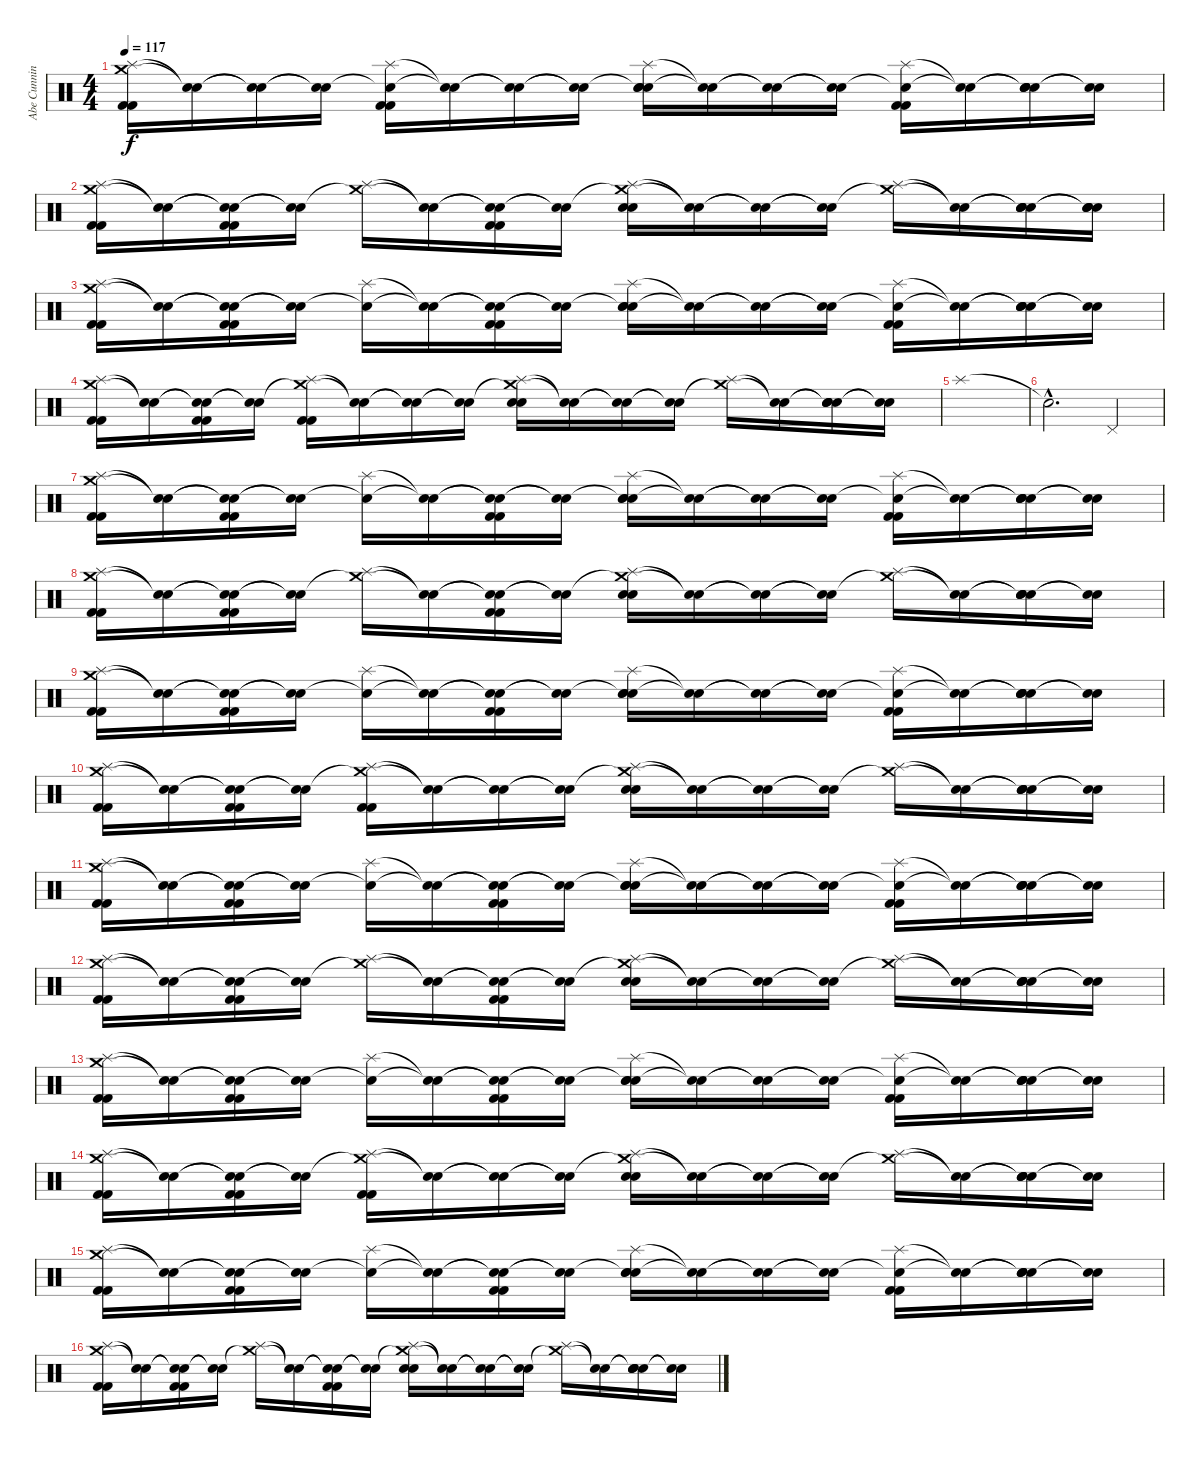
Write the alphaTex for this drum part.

\track ("Abe Cunningham" "Abe Cunnin") {instrument percussion}
\staff {score}
\articulation defaults
\ts (4 4)
\tempo 117
\clef neutral
\ks c
("Splash (hit)" "Crash medium (hit)" "Kick (hit) 2" "Kick (hit) 2").16{dy f} ("Snare (hit)"{t} "Snare (hit)"{t}).16 ("Snare (hit)"{t} "Snare (hit)"{t}).16 ("Snare (hit)"{t} "Snare (hit)"{t}).16 ("Splash (hit)" "Snare (hit)"{t} "Kick (hit) 2" "Kick (hit) 2").16 ("Snare (hit)"{t} "Snare (hit)"{t}).16 ("Snare (hit)"{t} "Snare (hit)"{t}).16 ("Snare (hit)"{t} "Snare (hit)"{t}).16 ("Splash (hit)" "Snare (hit)"{t} "Electric Snare (hit)" "Electric Snare (hit)").16 ("Snare (hit)"{t} "Snare (hit)"{t}).16 ("Snare (hit)"{t} "Snare (hit)"{t}).16 ("Snare (hit)"{t} "Snare (hit)"{t}).16 ("Splash (hit)" "Snare (hit)"{t} "Kick (hit) 2" "Kick (hit) 2").16 ("Snare (hit)"{t} "Snare (hit)"{t}).16 ("Snare (hit)"{t} "Snare (hit)"{t} "Electric Snare (hit)" "Electric Snare (hit)").16 ("Snare (hit)"{t} "Snare (hit)"{t}).16 |
("Splash (hit)" "Crash medium (hit)" "Kick (hit) 2" "Kick (hit) 2").16 ("Snare (hit)"{t} "Snare (hit)"{t}).16 ("Snare (hit)"{t} "Snare (hit)"{t} "Kick (hit) 2" "Kick (hit) 2").16 ("Snare (hit)"{t} "Snare (hit)"{t}).16 ("Splash (hit)" "Crash medium (hit)"{t}).16 ("Snare (hit)"{t} "Snare (hit)"{t}).16 ("Snare (hit)"{t} "Snare (hit)"{t} "Kick (hit) 2" "Kick (hit) 2").16 ("Snare (hit)"{t} "Snare (hit)"{t}).16 ("Splash (hit)" "Crash medium (hit)"{t} "Electric Snare (hit)" "Electric Snare (hit)").16 ("Snare (hit)"{t} "Snare (hit)"{t}).16 ("Snare (hit)"{t} "Snare (hit)"{t}).16 ("Snare (hit)"{t} "Snare (hit)"{t}).16 ("Splash (hit)" "Crash medium (hit)"{t}).16 ("Snare (hit)"{t} "Snare (hit)"{t}).16 ("Snare (hit)"{t} "Snare (hit)"{t} "Electric Snare (hit)" "Electric Snare (hit)").16 ("Snare (hit)"{t} "Snare (hit)"{t} "Electric Snare (hit)" "Electric Snare (hit)").16 |
("Splash (hit)" "Crash medium (hit)" "Kick (hit) 2" "Kick (hit) 2").16 ("Snare (hit)"{t} "Snare (hit)"{t}).16 ("Snare (hit)"{t} "Snare (hit)"{t} "Kick (hit) 2" "Kick (hit) 2").16 ("Snare (hit)"{t} "Snare (hit)"{t}).16 ("Splash (hit)" "Snare (hit)"{t}).16 ("Snare (hit)"{t} "Snare (hit)"{t}).16 ("Snare (hit)"{t} "Snare (hit)"{t} "Kick (hit) 2" "Kick (hit) 2").16 ("Snare (hit)"{t} "Snare (hit)"{t}).16 ("Splash (hit)" "Snare (hit)"{t} "Electric Snare (hit)" "Electric Snare (hit)").16 ("Snare (hit)"{t} "Snare (hit)"{t}).16 ("Snare (hit)"{t} "Snare (hit)"{t}).16 ("Snare (hit)"{t} "Snare (hit)"{t}).16 ("Splash (hit)" "Snare (hit)"{t} "Kick (hit) 2" "Kick (hit) 2").16 ("Snare (hit)"{t} "Snare (hit)"{t}).16 ("Snare (hit)"{t} "Snare (hit)"{t} "Electric Snare (hit)" "Electric Snare (hit)").16 ("Snare (hit)"{t} "Snare (hit)"{t}).16 |
("Splash (hit)" "Crash medium (hit)" "Kick (hit) 2" "Kick (hit) 2").16 ("Snare (hit)"{t} "Snare (hit)"{t}).16 ("Snare (hit)"{t} "Snare (hit)"{t} "Kick (hit) 2" "Kick (hit) 2").16 ("Snare (hit)"{t} "Snare (hit)"{t}).16 ("Splash (hit)" "Crash medium (hit)"{t} "Kick (hit) 2" "Kick (hit) 2").16 ("Snare (hit)"{t} "Snare (hit)"{t}).16 ("Snare (hit)"{t} "Snare (hit)"{t}).16 ("Snare (hit)"{t} "Snare (hit)"{t}).16 ("Splash (hit)" "Crash medium (hit)"{t} "Electric Snare (hit)" "Electric Snare (hit)").16 ("Snare (hit)"{t} "Snare (hit)"{t}).16 ("Snare (hit)"{t} "Snare (hit)"{t}).16 ("Snare (hit)"{t} "Snare (hit)"{t}).16 ("Splash (hit)" "Crash medium (hit)"{t}).16 ("Snare (hit)"{t} "Snare (hit)"{t}).16 ("Snare (hit)"{t} "Snare (hit)"{t} "Electric Snare (hit)" "Electric Snare (hit)").16 ("Snare (hit)"{t} "Snare (hit)"{t}).16 |
"Splash (hit)".1 |
"Snare (hit)"{hac t}.2{d} "Pedal Hi-Hat (hit)".4 |
("Splash (hit)" "Crash medium (hit)" "Kick (hit) 2" "Kick (hit) 2").16 ("Snare (hit)"{t} "Snare (hit)"{t}).16 ("Snare (hit)"{t} "Snare (hit)"{t} "Kick (hit) 2" "Kick (hit) 2").16 ("Snare (hit)"{t} "Snare (hit)"{t}).16 ("Splash (hit)" "Snare (hit)"{t}).16 ("Snare (hit)"{t} "Snare (hit)"{t}).16 ("Snare (hit)"{t} "Snare (hit)"{t} "Kick (hit) 2" "Kick (hit) 2").16 ("Snare (hit)"{t} "Snare (hit)"{t}).16 ("Splash (hit)" "Snare (hit)"{t} "Electric Snare (hit)" "Electric Snare (hit)").16 ("Snare (hit)"{t} "Snare (hit)"{t}).16 ("Snare (hit)"{t} "Snare (hit)"{t}).16 ("Snare (hit)"{t} "Snare (hit)"{t}).16 ("Splash (hit)" "Snare (hit)"{t} "Kick (hit) 2" "Kick (hit) 2").16 ("Snare (hit)"{t} "Snare (hit)"{t}).16 ("Snare (hit)"{t} "Snare (hit)"{t} "Electric Snare (hit)" "Electric Snare (hit)").16 ("Snare (hit)"{t} "Snare (hit)"{t}).16 |
("Splash (hit)" "Crash medium (hit)" "Kick (hit) 2" "Kick (hit) 2").16 ("Snare (hit)"{t} "Snare (hit)"{t}).16 ("Snare (hit)"{t} "Snare (hit)"{t} "Kick (hit) 2" "Kick (hit) 2").16 ("Snare (hit)"{t} "Snare (hit)"{t}).16 ("Splash (hit)" "Crash medium (hit)"{t}).16 ("Snare (hit)"{t} "Snare (hit)"{t}).16 ("Snare (hit)"{t} "Snare (hit)"{t} "Kick (hit) 2" "Kick (hit) 2").16 ("Snare (hit)"{t} "Snare (hit)"{t}).16 ("Splash (hit)" "Crash medium (hit)"{t} "Electric Snare (hit)" "Electric Snare (hit)").16 ("Snare (hit)"{t} "Snare (hit)"{t}).16 ("Snare (hit)"{t} "Snare (hit)"{t}).16 ("Snare (hit)"{t} "Snare (hit)"{t}).16 ("Splash (hit)" "Crash medium (hit)"{t}).16 ("Snare (hit)"{t} "Snare (hit)"{t}).16 ("Snare (hit)"{t} "Snare (hit)"{t} "Electric Snare (hit)" "Electric Snare (hit)").16 ("Snare (hit)"{t} "Snare (hit)"{t}).16 |
("Splash (hit)" "Crash medium (hit)" "Kick (hit) 2" "Kick (hit) 2").16 ("Snare (hit)"{t} "Snare (hit)"{t}).16 ("Snare (hit)"{t} "Snare (hit)"{t} "Kick (hit) 2" "Kick (hit) 2").16 ("Snare (hit)"{t} "Snare (hit)"{t}).16 ("Splash (hit)" "Snare (hit)"{t}).16 ("Snare (hit)"{t} "Snare (hit)"{t}).16 ("Snare (hit)"{t} "Snare (hit)"{t} "Kick (hit) 2" "Kick (hit) 2").16 ("Snare (hit)"{t} "Snare (hit)"{t}).16 ("Splash (hit)" "Snare (hit)"{t} "Electric Snare (hit)" "Electric Snare (hit)").16 ("Snare (hit)"{t} "Snare (hit)"{t}).16 ("Snare (hit)"{t} "Snare (hit)"{t}).16 ("Snare (hit)"{t} "Snare (hit)"{t}).16 ("Splash (hit)" "Snare (hit)"{t} "Kick (hit) 2" "Kick (hit) 2").16 ("Snare (hit)"{t} "Snare (hit)"{t}).16 ("Snare (hit)"{t} "Snare (hit)"{t} "Electric Snare (hit)" "Electric Snare (hit)").16 ("Snare (hit)"{t} "Snare (hit)"{t}).16 |
("Splash (hit)" "Crash medium (hit)" "Kick (hit) 2" "Kick (hit) 2").16 ("Snare (hit)"{t} "Snare (hit)"{t}).16 ("Snare (hit)"{t} "Snare (hit)"{t} "Kick (hit) 2" "Kick (hit) 2").16 ("Snare (hit)"{t} "Snare (hit)"{t}).16 ("Splash (hit)" "Crash medium (hit)"{t} "Kick (hit) 2" "Kick (hit) 2").16 ("Snare (hit)"{t} "Snare (hit)"{t}).16 ("Snare (hit)"{t} "Snare (hit)"{t}).16 ("Snare (hit)"{t} "Snare (hit)"{t}).16 ("Splash (hit)" "Crash medium (hit)"{t} "Electric Snare (hit)" "Electric Snare (hit)").16 ("Snare (hit)"{t} "Snare (hit)"{t}).16 ("Snare (hit)"{t} "Snare (hit)"{t}).16 ("Snare (hit)"{t} "Snare (hit)"{t}).16 ("Splash (hit)" "Crash medium (hit)"{t}).16 ("Snare (hit)"{t} "Snare (hit)"{t}).16 ("Snare (hit)"{t} "Snare (hit)"{t} "Electric Snare (hit)" "Electric Snare (hit)").16 ("Snare (hit)"{t} "Snare (hit)"{t}).16 |
("Splash (hit)" "Crash medium (hit)" "Kick (hit) 2" "Kick (hit) 2").16 ("Snare (hit)"{t} "Snare (hit)"{t}).16 ("Snare (hit)"{t} "Snare (hit)"{t} "Kick (hit) 2" "Kick (hit) 2").16 ("Snare (hit)"{t} "Snare (hit)"{t}).16 ("Splash (hit)" "Snare (hit)"{t}).16 ("Snare (hit)"{t} "Snare (hit)"{t}).16 ("Snare (hit)"{t} "Snare (hit)"{t} "Kick (hit) 2" "Kick (hit) 2").16 ("Snare (hit)"{t} "Snare (hit)"{t}).16 ("Splash (hit)" "Snare (hit)"{t} "Electric Snare (hit)" "Electric Snare (hit)").16 ("Snare (hit)"{t} "Snare (hit)"{t}).16 ("Snare (hit)"{t} "Snare (hit)"{t}).16 ("Snare (hit)"{t} "Snare (hit)"{t}).16 ("Splash (hit)" "Snare (hit)"{t} "Kick (hit) 2" "Kick (hit) 2").16 ("Snare (hit)"{t} "Snare (hit)"{t}).16 ("Snare (hit)"{t} "Snare (hit)"{t} "Electric Snare (hit)" "Electric Snare (hit)").16 ("Snare (hit)"{t} "Snare (hit)"{t}).16 |
("Splash (hit)" "Crash medium (hit)" "Kick (hit) 2" "Kick (hit) 2").16 ("Snare (hit)"{t} "Snare (hit)"{t}).16 ("Snare (hit)"{t} "Snare (hit)"{t} "Kick (hit) 2" "Kick (hit) 2").16 ("Snare (hit)"{t} "Snare (hit)"{t}).16 ("Splash (hit)" "Crash medium (hit)"{t}).16 ("Snare (hit)"{t} "Snare (hit)"{t}).16 ("Snare (hit)"{t} "Snare (hit)"{t} "Kick (hit) 2" "Kick (hit) 2").16 ("Snare (hit)"{t} "Snare (hit)"{t}).16 ("Splash (hit)" "Crash medium (hit)"{t} "Electric Snare (hit)" "Electric Snare (hit)").16 ("Snare (hit)"{t} "Snare (hit)"{t}).16 ("Snare (hit)"{t} "Snare (hit)"{t}).16 ("Snare (hit)"{t} "Snare (hit)"{t}).16 ("Splash (hit)" "Crash medium (hit)"{t}).16 ("Snare (hit)"{t} "Snare (hit)"{t}).16 ("Snare (hit)"{t} "Snare (hit)"{t} "Electric Snare (hit)" "Electric Snare (hit)").16 ("Snare (hit)"{t} "Snare (hit)"{t}).16 |
("Splash (hit)" "Crash medium (hit)" "Kick (hit) 2" "Kick (hit) 2").16 ("Snare (hit)"{t} "Snare (hit)"{t}).16 ("Snare (hit)"{t} "Snare (hit)"{t} "Kick (hit) 2" "Kick (hit) 2").16 ("Snare (hit)"{t} "Snare (hit)"{t}).16 ("Splash (hit)" "Snare (hit)"{t}).16 ("Snare (hit)"{t} "Snare (hit)"{t}).16 ("Snare (hit)"{t} "Snare (hit)"{t} "Kick (hit) 2" "Kick (hit) 2").16 ("Snare (hit)"{t} "Snare (hit)"{t}).16 ("Splash (hit)" "Snare (hit)"{t} "Electric Snare (hit)" "Electric Snare (hit)").16 ("Snare (hit)"{t} "Snare (hit)"{t}).16 ("Snare (hit)"{t} "Snare (hit)"{t}).16 ("Snare (hit)"{t} "Snare (hit)"{t}).16 ("Splash (hit)" "Snare (hit)"{t} "Kick (hit) 2" "Kick (hit) 2").16 ("Snare (hit)"{t} "Snare (hit)"{t}).16 ("Snare (hit)"{t} "Snare (hit)"{t} "Electric Snare (hit)" "Electric Snare (hit)").16 ("Snare (hit)"{t} "Snare (hit)"{t}).16 |
("Splash (hit)" "Crash medium (hit)" "Kick (hit) 2" "Kick (hit) 2").16 ("Snare (hit)"{t} "Snare (hit)"{t}).16 ("Snare (hit)"{t} "Snare (hit)"{t} "Kick (hit) 2" "Kick (hit) 2").16 ("Snare (hit)"{t} "Snare (hit)"{t}).16 ("Splash (hit)" "Crash medium (hit)"{t} "Kick (hit) 2" "Kick (hit) 2").16 ("Snare (hit)"{t} "Snare (hit)"{t}).16 ("Snare (hit)"{t} "Snare (hit)"{t}).16 ("Snare (hit)"{t} "Snare (hit)"{t}).16 ("Splash (hit)" "Crash medium (hit)"{t} "Electric Snare (hit)" "Electric Snare (hit)").16 ("Snare (hit)"{t} "Snare (hit)"{t}).16 ("Snare (hit)"{t} "Snare (hit)"{t}).16 ("Snare (hit)"{t} "Snare (hit)"{t}).16 ("Splash (hit)" "Crash medium (hit)"{t}).16 ("Snare (hit)"{t} "Snare (hit)"{t}).16 ("Snare (hit)"{t} "Snare (hit)"{t} "Electric Snare (hit)" "Electric Snare (hit)").16 ("Snare (hit)"{t} "Snare (hit)"{t}).16 |
("Splash (hit)" "Crash medium (hit)" "Kick (hit) 2" "Kick (hit) 2").16 ("Snare (hit)"{t} "Snare (hit)"{t}).16 ("Snare (hit)"{t} "Snare (hit)"{t} "Kick (hit) 2" "Kick (hit) 2").16 ("Snare (hit)"{t} "Snare (hit)"{t}).16 ("Splash (hit)" "Snare (hit)"{t}).16 ("Snare (hit)"{t} "Snare (hit)"{t}).16 ("Snare (hit)"{t} "Snare (hit)"{t} "Kick (hit) 2" "Kick (hit) 2").16 ("Snare (hit)"{t} "Snare (hit)"{t}).16 ("Splash (hit)" "Snare (hit)"{t} "Electric Snare (hit)" "Electric Snare (hit)").16 ("Snare (hit)"{t} "Snare (hit)"{t}).16 ("Snare (hit)"{t} "Snare (hit)"{t}).16 ("Snare (hit)"{t} "Snare (hit)"{t}).16 ("Splash (hit)" "Snare (hit)"{t} "Kick (hit) 2" "Kick (hit) 2").16 ("Snare (hit)"{t} "Snare (hit)"{t}).16 ("Snare (hit)"{t} "Snare (hit)"{t} "Electric Snare (hit)" "Electric Snare (hit)").16 ("Snare (hit)"{t} "Snare (hit)"{t}).16 |
("Splash (hit)" "Crash medium (hit)" "Kick (hit) 2" "Kick (hit) 2").16 ("Snare (hit)"{t} "Snare (hit)"{t}).16 ("Snare (hit)"{t} "Snare (hit)"{t} "Kick (hit) 2" "Kick (hit) 2").16 ("Snare (hit)"{t} "Snare (hit)"{t}).16 ("Splash (hit)" "Crash medium (hit)"{t}).16 ("Snare (hit)"{t} "Snare (hit)"{t}).16 ("Snare (hit)"{t} "Snare (hit)"{t} "Kick (hit) 2" "Kick (hit) 2").16 ("Snare (hit)"{t} "Snare (hit)"{t}).16 ("Splash (hit)" "Crash medium (hit)"{t} "Electric Snare (hit)" "Electric Snare (hit)").16 ("Snare (hit)"{t} "Snare (hit)"{t}).16 ("Snare (hit)"{t} "Snare (hit)"{t}).16 ("Snare (hit)"{t} "Snare (hit)"{t}).16 ("Splash (hit)" "Crash medium (hit)"{t}).16 ("Snare (hit)"{t} "Snare (hit)"{t}).16 ("Snare (hit)"{t} "Snare (hit)"{t} "Electric Snare (hit)" "Electric Snare (hit)").16 ("Snare (hit)"{t} "Snare (hit)"{t}).16
